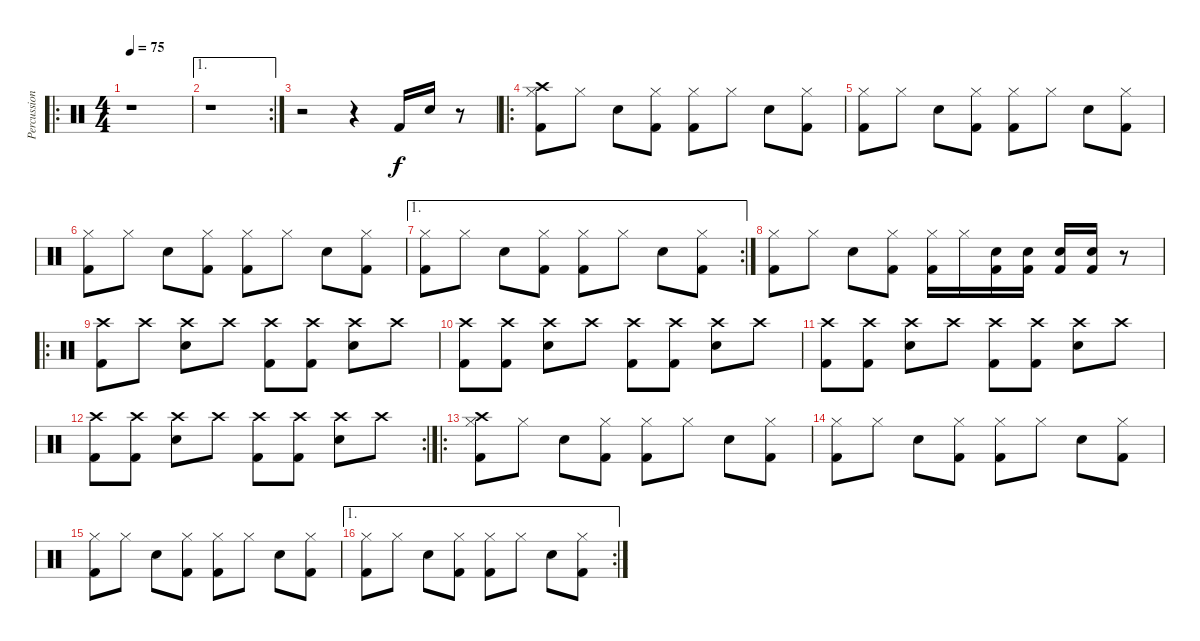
\track ("Percussion" "Percussion") {instrument percussion}
\staff {score}
\articulation defaults
\ro
\ts (4 4)
\tempo 75
\clef neutral
\ks c
r.1{dy f} |
\ae 1
\rc 2
r.1 |
r.2 r.4 "Kick (hit) 2".16 "Snare (hit) 2".16 r.8 |
\ro
("Kick (hit) 2" "Crash high (hit)" "Hi-Hat (closed)").8 "Hi-Hat (closed)".8 "Snare (hit) 2".8 ("Kick (hit) 2" "Hi-Hat (closed)").8 ("Kick (hit) 2" "Hi-Hat (closed)").8 "Hi-Hat (closed)".8 "Snare (hit) 2".8 ("Kick (hit) 2" "Hi-Hat (closed)").8 |
("Kick (hit) 2" "Hi-Hat (closed)").8 "Hi-Hat (closed)".8 "Snare (hit) 2".8 ("Kick (hit) 2" "Hi-Hat (closed)").8 ("Kick (hit) 2" "Hi-Hat (closed)").8 "Hi-Hat (closed)".8 "Snare (hit) 2".8 ("Kick (hit) 2" "Hi-Hat (closed)").8 |
("Kick (hit) 2" "Hi-Hat (closed)").8 "Hi-Hat (closed)".8 "Snare (hit) 2".8 ("Kick (hit) 2" "Hi-Hat (closed)").8 ("Kick (hit) 2" "Hi-Hat (closed)").8 "Hi-Hat (closed)".8 "Snare (hit) 2".8 ("Kick (hit) 2" "Hi-Hat (closed)").8 |
\ae 1
\rc 2
("Kick (hit) 2" "Hi-Hat (closed)").8 "Hi-Hat (closed)".8 "Snare (hit) 2".8 ("Kick (hit) 2" "Hi-Hat (closed)").8 ("Kick (hit) 2" "Hi-Hat (closed)").8 "Hi-Hat (closed)".8 "Snare (hit) 2".8 ("Kick (hit) 2" "Hi-Hat (closed)").8 |
("Kick (hit) 2" "Hi-Hat (closed)").8 "Hi-Hat (closed)".8 "Snare (hit) 2".8 ("Kick (hit) 2" "Hi-Hat (closed)").8 ("Kick (hit) 2" "Hi-Hat (closed)").16 "Hi-Hat (closed)".16 ("Snare (hit) 2" "Kick (hit) 2").16 ("Snare (hit) 2" "Kick (hit) 2").16 ("Snare (hit) 2" "Kick (hit) 2").16 ("Snare (hit) 2" "Kick (hit) 2").16 r.8 |
\ro
("Kick (hit) 2" "Crash high (hit)").8 "Crash high (hit)".8 ("Snare (hit) 2" "Crash high (hit)").8 "Crash high (hit)".8 ("Kick (hit) 2" "Crash high (hit)").8 ("Kick (hit) 2" "Crash high (hit)").8 ("Snare (hit) 2" "Crash high (hit)").8 "Crash high (hit)".8 |
("Kick (hit) 2" "Crash high (hit)").8 ("Kick (hit) 2" "Crash high (hit)").8 ("Snare (hit) 2" "Crash high (hit)").8 "Crash high (hit)".8 ("Kick (hit) 2" "Crash high (hit)").8 ("Kick (hit) 2" "Crash high (hit)").8 ("Snare (hit) 2" "Crash high (hit)").8 "Crash high (hit)".8 |
("Kick (hit) 2" "Crash high (hit)").8 ("Kick (hit) 2" "Crash high (hit)").8 ("Snare (hit) 2" "Crash high (hit)").8 "Crash high (hit)".8 ("Kick (hit) 2" "Crash high (hit)").8 ("Kick (hit) 2" "Crash high (hit)").8 ("Snare (hit) 2" "Crash high (hit)").8 "Crash high (hit)".8 |
\rc 2
("Kick (hit) 2" "Crash high (hit)").8 ("Kick (hit) 2" "Crash high (hit)").8 ("Snare (hit) 2" "Crash high (hit)").8 "Crash high (hit)".8 ("Kick (hit) 2" "Crash high (hit)").8 ("Kick (hit) 2" "Crash high (hit)").8 ("Snare (hit) 2" "Crash high (hit)").8 "Crash high (hit)".8 |
\ro
("Kick (hit) 2" "Crash high (hit)" "Hi-Hat (closed)").8 "Hi-Hat (closed)".8 "Snare (hit) 2".8 ("Kick (hit) 2" "Hi-Hat (closed)").8 ("Kick (hit) 2" "Hi-Hat (closed)").8 "Hi-Hat (closed)".8 "Snare (hit) 2".8 ("Kick (hit) 2" "Hi-Hat (closed)").8 |
("Kick (hit) 2" "Hi-Hat (closed)").8 "Hi-Hat (closed)".8 "Snare (hit) 2".8 ("Kick (hit) 2" "Hi-Hat (closed)").8 ("Kick (hit) 2" "Hi-Hat (closed)").8 "Hi-Hat (closed)".8 "Snare (hit) 2".8 ("Kick (hit) 2" "Hi-Hat (closed)").8 |
("Kick (hit) 2" "Hi-Hat (closed)").8 "Hi-Hat (closed)".8 "Snare (hit) 2".8 ("Kick (hit) 2" "Hi-Hat (closed)").8 ("Kick (hit) 2" "Hi-Hat (closed)").8 "Hi-Hat (closed)".8 "Snare (hit) 2".8 ("Kick (hit) 2" "Hi-Hat (closed)").8 |
\ae 1
\rc 2
("Kick (hit) 2" "Hi-Hat (closed)").8 "Hi-Hat (closed)".8 "Snare (hit) 2".8 ("Kick (hit) 2" "Hi-Hat (closed)").8 ("Kick (hit) 2" "Hi-Hat (closed)").8 "Hi-Hat (closed)".8 "Snare (hit) 2".8 ("Kick (hit) 2" "Hi-Hat (closed)").8
